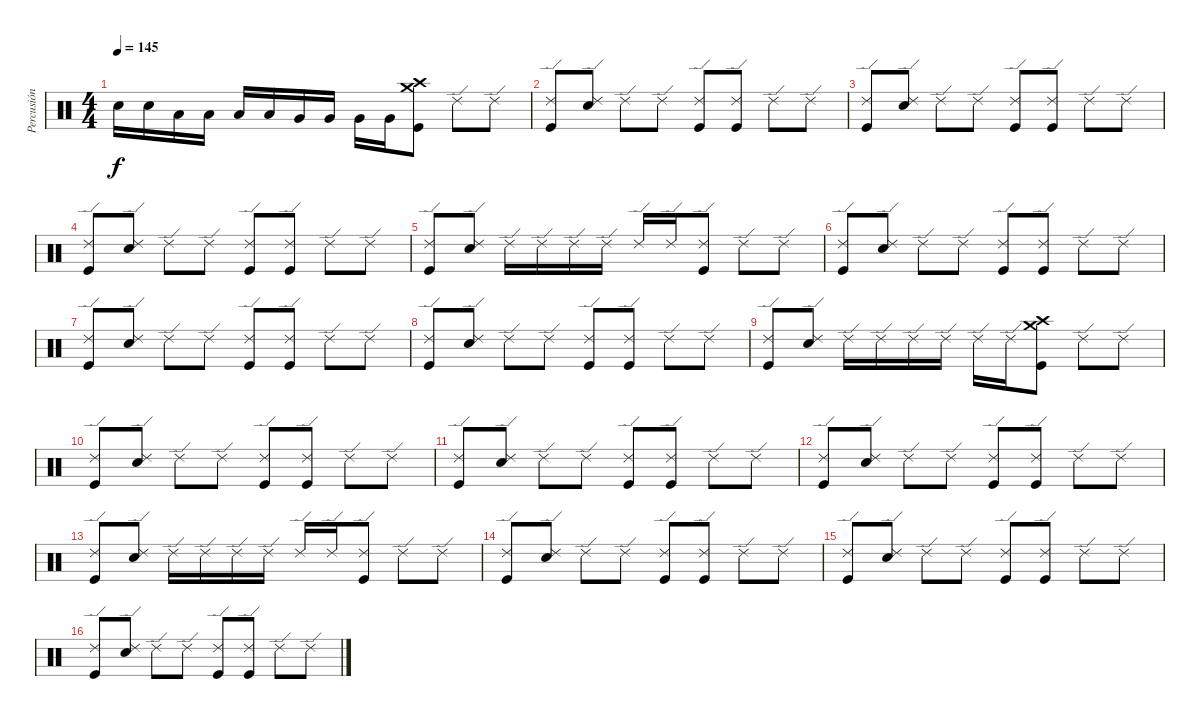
\track ("Percusión" "Percusión") {instrument percussion}
\staff {score}
\articulation defaults
\ts (4 4)
\tempo 145
\clef neutral
\ks c "Snare (hit) 2".16{dy f} "Snare (hit) 2".16 "Low Tom (hit)".16 "Low Tom (hit)".16 "Low Tom (hit)".16 "Low Tom (hit)".16 "Very Low Tom (hit)".16 "Very Low Tom (hit)".16 "Very Low Tom (hit)".16 "Very Low Tom (hit)".16
("Crash high (hit)" "Crash medium (hit)" "Kick (hit)").8 "Ride (edge) 2".8 "Ride (edge) 2".8 |
("Ride (edge) 2" "Kick (hit)").8 ("Ride (edge) 2" "Snare (hit) 2").8 "Ride (edge) 2".8 "Ride (edge) 2".8 ("Ride (edge) 2" "Kick (hit)").8 ("Ride (edge) 2" "Kick (hit)").8 "Ride (edge) 2".8 "Ride (edge) 2".8 |
("Ride (edge) 2" "Kick (hit)").8 ("Ride (edge) 2" "Snare (hit) 2").8 "Ride (edge) 2".8 "Ride (edge) 2".8 ("Ride (edge) 2" "Kick (hit)").8 ("Ride (edge) 2" "Kick (hit)").8 "Ride (edge) 2".8 "Ride (edge) 2".8 |
("Ride (edge) 2" "Kick (hit)").8 ("Ride (edge) 2" "Snare (hit) 2").8 "Ride (edge) 2".8 "Ride (edge) 2".8 ("Ride (edge) 2" "Kick (hit)").8 ("Ride (edge) 2" "Kick (hit)").8 "Ride (edge) 2".8 "Ride (edge) 2".8 |
("Ride (edge) 2" "Kick (hit)").8 ("Ride (edge) 2" "Snare (hit) 2").8 "Ride (edge) 2".16 "Ride (edge) 2".16 "Ride (edge) 2".16 "Ride (edge) 2".16 "Ride (edge) 2".16 "Ride (edge) 2".16 ("Ride (edge) 2" "Kick (hit)").8 "Ride (edge) 2".8 "Ride (edge) 2".8 |
("Ride (edge) 2" "Kick (hit)").8 ("Ride (edge) 2" "Snare (hit) 2").8 "Ride (edge) 2".8 "Ride (edge) 2".8 ("Ride (edge) 2" "Kick (hit)").8 ("Ride (edge) 2" "Kick (hit)").8 "Ride (edge) 2".8 "Ride (edge) 2".8 |
("Ride (edge) 2" "Kick (hit)").8 ("Ride (edge) 2" "Snare (hit) 2").8 "Ride (edge) 2".8 "Ride (edge) 2".8 ("Ride (edge) 2" "Kick (hit)").8 ("Ride (edge) 2" "Kick (hit)").8 "Ride (edge) 2".8 "Ride (edge) 2".8 |
("Ride (edge) 2" "Kick (hit)").8 ("Ride (edge) 2" "Snare (hit) 2").8 "Ride (edge) 2".8 "Ride (edge) 2".8 ("Ride (edge) 2" "Kick (hit)").8 ("Ride (edge) 2" "Kick (hit)").8 "Ride (edge) 2".8 "Ride (edge) 2".8 |
("Ride (edge) 2" "Kick (hit)").8 ("Ride (edge) 2" "Snare (hit) 2").8 "Ride (edge) 2".16 "Ride (edge) 2".16 "Ride (edge) 2".16 "Ride (edge) 2".16 "Ride (edge) 2".16 "Ride (edge) 2".16 ("Crash high (hit)" "Crash medium (hit)" "Kick (hit)").8 "Ride (edge) 2".8 "Ride (edge) 2".8 |
("Ride (edge) 2" "Kick (hit)").8 ("Ride (edge) 2" "Snare (hit) 2").8 "Ride (edge) 2".8 "Ride (edge) 2".8 ("Ride (edge) 2" "Kick (hit)").8 ("Ride (edge) 2" "Kick (hit)").8 "Ride (edge) 2".8 "Ride (edge) 2".8 |
("Ride (edge) 2" "Kick (hit)").8 ("Ride (edge) 2" "Snare (hit) 2").8 "Ride (edge) 2".8 "Ride (edge) 2".8 ("Ride (edge) 2" "Kick (hit)").8 ("Ride (edge) 2" "Kick (hit)").8 "Ride (edge) 2".8 "Ride (edge) 2".8 |
("Ride (edge) 2" "Kick (hit)").8 ("Ride (edge) 2" "Snare (hit) 2").8 "Ride (edge) 2".8 "Ride (edge) 2".8 ("Ride (edge) 2" "Kick (hit)").8 ("Ride (edge) 2" "Kick (hit)").8 "Ride (edge) 2".8 "Ride (edge) 2".8 |
("Ride (edge) 2" "Kick (hit)").8 ("Ride (edge) 2" "Snare (hit) 2").8 "Ride (edge) 2".16 "Ride (edge) 2".16 "Ride (edge) 2".16 "Ride (edge) 2".16 "Ride (edge) 2".16 "Ride (edge) 2".16 ("Ride (edge) 2" "Kick (hit)").8 "Ride (edge) 2".8 "Ride (edge) 2".8 |
("Ride (edge) 2" "Kick (hit)").8 ("Ride (edge) 2" "Snare (hit) 2").8 "Ride (edge) 2".8 "Ride (edge) 2".8 ("Ride (edge) 2" "Kick (hit)").8 ("Ride (edge) 2" "Kick (hit)").8 "Ride (edge) 2".8 "Ride (edge) 2".8 |
("Ride (edge) 2" "Kick (hit)").8 ("Ride (edge) 2" "Snare (hit) 2").8 "Ride (edge) 2".8 "Ride (edge) 2".8 ("Ride (edge) 2" "Kick (hit)").8 ("Ride (edge) 2" "Kick (hit)").8 "Ride (edge) 2".8 "Ride (edge) 2".8 |
("Ride (edge) 2" "Kick (hit)").8 ("Ride (edge) 2" "Snare (hit) 2").8 "Ride (edge) 2".8 "Ride (edge) 2".8 ("Ride (edge) 2" "Kick (hit)").8 ("Ride (edge) 2" "Kick (hit)").8 "Ride (edge) 2".8 "Ride (edge) 2".8
